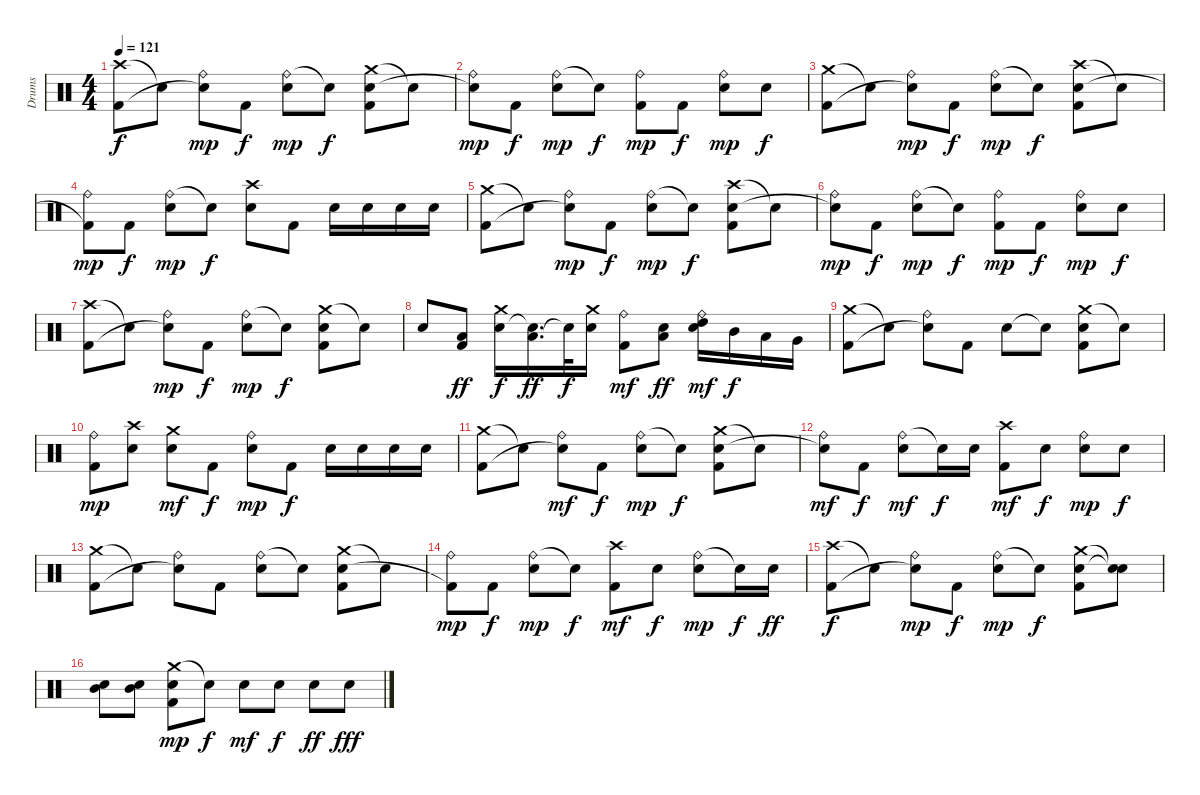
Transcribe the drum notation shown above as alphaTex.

\track ("Drums" "Drums") {instrument percussion}
\staff {score}
\articulation defaults
\ts (4 4)
\tempo 121
\clef neutral
\ks c
("Crash high (hit)" "Kick (hit) 2").8{dy f} "Snare (hit)"{t}.8 ("Ride (bell)" "Snare (hit)"{t}).8{dy mp} "Kick (hit) 2".8{dy f} ("Ride (bell)" "Electric Snare (hit)").8{dy mp} "Snare (hit)"{t}.8{dy f} ("Crash medium (hit)" "Electric Snare (hit)" "Kick (hit) 2").8 "Snare (hit)"{t}.8 |
("Ride (bell)" "Snare (hit)"{t}).8{dy mp} "Kick (hit) 2".8{dy f} ("Ride (bell)" "Electric Snare (hit)").8{dy mp} "Snare (hit)"{t}.8{dy f} ("Ride (bell)" "Kick (hit) 2").8{dy mp} "Kick (hit) 2".8{dy f} ("Ride (bell)" "Electric Snare (hit)").8{dy mp} "Electric Snare (hit)".8{dy f} |
("Crash medium (hit)" "Kick (hit) 2").8 "Snare (hit)"{t}.8 ("Ride (bell)" "Snare (hit)"{t}).8{dy mp} "Kick (hit) 2".8{dy f} ("Ride (bell)" "Electric Snare (hit)").8{dy mp} "Snare (hit)"{t}.8{dy f} ("Crash high (hit)" "Electric Snare (hit)" "Kick (hit) 2").8 "Snare (hit)"{t}.8 |
("Ride (bell)" "Kick (hit) 2"{t}).8{dy mp} "Kick (hit) 2".8{dy f} ("Ride (bell)" "Electric Snare (hit)").8{dy mp} "Snare (hit)"{t}.8{dy f} ("Crash high (hit)" "Electric Snare (hit)").8 "Kick (hit) 2".8 "Electric Snare (hit)".16 "Electric Snare (hit)".16 "Electric Snare (hit)".16 "Electric Snare (hit)".16 |
("Crash medium (hit)" "Kick (hit) 2").8 "Snare (hit)"{t}.8 ("Ride (bell)" "Snare (hit)"{t}).8{dy mp} "Kick (hit) 2".8{dy f} ("Ride (bell)" "Electric Snare (hit)").8{dy mp} "Snare (hit)"{t}.8{dy f} ("Crash high (hit)" "Electric Snare (hit)" "Kick (hit) 2").8 "Snare (hit)"{t}.8 |
("Ride (bell)" "Snare (hit)"{t}).8{dy mp} "Kick (hit) 2".8{dy f} ("Ride (bell)" "Electric Snare (hit)").8{dy mp} "Snare (hit)"{t}.8{dy f} ("Ride (bell)" "Kick (hit) 2").8{dy mp} "Kick (hit) 2".8{dy f} ("Ride (bell)" "Electric Snare (hit)").8{dy mp} "Electric Snare (hit)".8{dy f} |
("Crash high (hit)" "Kick (hit) 2").8 "Snare (hit)"{t}.8 ("Ride (bell)" "Snare (hit)"{t}).8{dy mp} "Kick (hit) 2".8{dy f} ("Ride (bell)" "Electric Snare (hit)").8{dy mp} "Snare (hit)"{t}.8{dy f} ("Crash medium (hit)" "Electric Snare (hit)" "Kick (hit) 2").8 "Snare (hit)"{t}.8 |
"Electric Snare (hit)".8 ("Low Tom (hit)" "Kick (hit) 2").8{dy ff} ("Crash medium (hit)" "Electric Snare (hit)").16{dy f} ("Low Tom (hit)" "Snare (hit)"{t}).16{d dy ff} "Snare (hit)"{t}.32{dy f} ("Crash medium (hit)" "Electric Snare (hit)").16 ("Ride (bell)" "Kick (hit) 2").8{dy mf} ("Low Tom (hit)" "Electric Snare (hit)").8{dy ff} ("Ride (bell)" "High Tom (hit)" "Electric Snare (hit)").16{dy mf} "Mid Tom (hit)".16{dy f} "Low Tom (hit)".16 "Very Low Tom (hit)".16 |
("Crash medium (hit)" "Kick (hit) 2").8 "Snare (hit)"{t}.8 ("Ride (bell)" "Snare (hit)"{t}).8 "Kick (hit) 2".8 "Electric Snare (hit)".8 "Snare (hit)"{t}.8 ("Crash medium (hit)" "Electric Snare (hit)" "Kick (hit) 2").8 "Snare (hit)"{t}.8 |
("Ride (bell)" "Kick (hit) 2").8{dy mp} ("Crash high (hit)" "Electric Snare (hit)").8 ("Crash medium (hit)" "Electric Snare (hit)").8{dy mf} "Kick (hit) 2".8{dy f} ("Ride (bell)" "Electric Snare (hit)").8{dy mp} "Kick (hit) 2".8{dy f} "Electric Snare (hit)".16 "Electric Snare (hit)".16 "Electric Snare (hit)".16 "Electric Snare (hit)".16 |
("Crash medium (hit)" "Kick (hit) 2").8 "Snare (hit)"{t}.8 ("Ride (bell)" "Snare (hit)"{t}).8{dy mf} "Kick (hit) 2".8{dy f} ("Ride (bell)" "Electric Snare (hit)").8{dy mp} "Snare (hit)"{t}.8{dy f} ("Crash medium (hit)" "Electric Snare (hit)" "Kick (hit) 2").8 "Snare (hit)"{t}.8 |
("Ride (bell)" "Snare (hit)"{t}).8{dy mf} "Kick (hit) 2".8{dy f} ("Ride (bell)" "Electric Snare (hit)").8{dy mf} "Snare (hit)"{t}.16{dy f} "Electric Snare (hit)".16 ("Crash high (hit)" "Kick (hit) 2").8{dy mf} "Electric Snare (hit)".8{dy f} ("Ride (bell)" "Electric Snare (hit)").8{dy mp} "Electric Snare (hit)".8{dy f} |
("Crash medium (hit)" "Kick (hit) 2").8 "Snare (hit)"{t}.8 ("Ride (bell)" "Snare (hit)"{t}).8 "Kick (hit) 2".8 ("Ride (bell)" "Electric Snare (hit)").8 "Snare (hit)"{t}.8 ("Crash medium (hit)" "Electric Snare (hit)" "Kick (hit) 2").8 "Snare (hit)"{t}.8 |
("Ride (bell)" "Kick (hit) 2"{t}).8{dy mp} "Kick (hit) 2".8{dy f} ("Ride (bell)" "Electric Snare (hit)").8{dy mp} "Snare (hit)"{t}.8{dy f} ("Crash high (hit)" "Kick (hit) 2").8{dy mf} "Electric Snare (hit)".8{dy f} ("Ride (bell)" "Electric Snare (hit)").8{dy mp} "Electric Snare (hit)"{t}.16{dy f} "Electric Snare (hit)".16{dy ff} |
("Crash high (hit)" "Kick (hit) 2").8{dy f} "Snare (hit)"{t}.8 ("Ride (bell)" "Snare (hit)"{t}).8{dy mp} "Kick (hit) 2".8{dy f} ("Ride (bell)" "Electric Snare (hit)").8{dy mp} "Snare (hit)"{t}.8{dy f} ("Crash medium (hit)" "Electric Snare (hit)" "Kick (hit) 2").8 ("Snare (hit)"{t} "Snare (hit)"{t}).8 |
("Mid Tom (hit)" "Electric Snare (hit)").8 ("Mid Tom (hit)" "Electric Snare (hit)").8 ("Crash medium (hit)" "Electric Snare (hit)" "Kick (hit) 2").8{dy mp} "Snare (hit)"{t}.8{dy f} "Electric Snare (hit)".8{dy mf} "Electric Snare (hit)".8{dy f} "Electric Snare (hit)".8{dy ff} "Electric Snare (hit)".8{dy fff}
